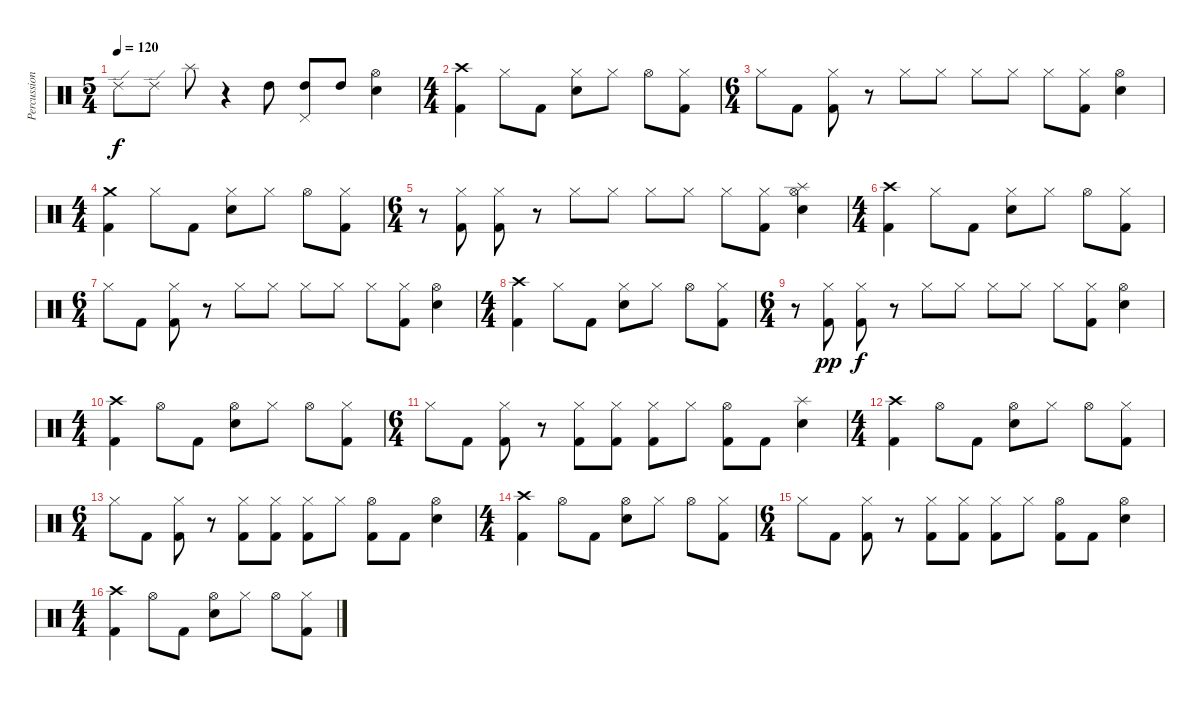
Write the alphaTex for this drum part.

\track ("Percussion" "Percussion") {instrument percussion}
\staff {score}
\articulation defaults
\ts (5 4)
\tempo 120
\clef neutral
\ks c "Ride (edge) 2".8{dy f} "Ride (edge) 2".8 "Splash (hit)".8
r.4 "High Tom (hit)".8 ("High Tom (hit)" "Pedal Hi-Hat (hit)").8 "High Tom (hit)".8 ("Electric Snare (hit)" "Hi-Hat (open)").4 |
\ts (4 4)
("Crash high (hit)" "Kick (hit) 2").4 "Hi-Hat (closed)".8 "Kick (hit) 2".8 ("Electric Snare (hit)" "Hi-Hat (closed)").8 "Hi-Hat (closed)".8 "Hi-Hat (open)".8 ("Hi-Hat (closed)" "Kick (hit) 2").8 |
\ts (6 4)
"Hi-Hat (closed)".8 "Kick (hit) 2".8 ("Hi-Hat (closed)" "Kick (hit) 2").8 r.8 "Hi-Hat (closed)".8 "Hi-Hat (closed)".8 "Hi-Hat (closed)".8 "Hi-Hat (closed)".8 "Hi-Hat (closed)".8 ("Hi-Hat (closed)" "Kick (hit) 2").8 ("Electric Snare (hit)" "Hi-Hat (open)").4 |
\ts (4 4)
("Crash medium (hit)" "Kick (hit) 2").4 "Hi-Hat (closed)".8 "Kick (hit) 2".8 ("Electric Snare (hit)" "Hi-Hat (closed)").8 "Hi-Hat (closed)".8 "Hi-Hat (open)".8 ("Hi-Hat (closed)" "Kick (hit) 2").8 |
\ts (6 4)
r.8 ("Hi-Hat (closed)" "Kick (hit) 2").8 ("Hi-Hat (closed)" "Kick (hit) 2").8 r.8 "Hi-Hat (closed)".8 "Hi-Hat (closed)".8 "Hi-Hat (closed)".8 "Hi-Hat (closed)".8 "Hi-Hat (closed)".8 ("Hi-Hat (closed)" "Kick (hit) 2").8 ("Splash (hit)" "Electric Snare (hit)" "Hi-Hat (open)").4 |
\ts (4 4)
("Crash high (hit)" "Kick (hit) 2").4 "Hi-Hat (closed)".8 "Kick (hit) 2".8 ("Electric Snare (hit)" "Hi-Hat (closed)").8 "Hi-Hat (closed)".8 "Hi-Hat (open)".8 ("Hi-Hat (closed)" "Kick (hit) 2").8 |
\ts (6 4)
"Hi-Hat (closed)".8 "Kick (hit) 2".8 ("Hi-Hat (closed)" "Kick (hit) 2").8 r.8 "Hi-Hat (closed)".8 "Hi-Hat (closed)".8 "Hi-Hat (closed)".8 "Hi-Hat (closed)".8 "Hi-Hat (closed)".8 ("Hi-Hat (closed)" "Kick (hit) 2").8 ("Electric Snare (hit)" "Hi-Hat (open)").4 |
\ts (4 4)
("Crash high (hit)" "Kick (hit) 2").4 "Hi-Hat (closed)".8 "Kick (hit) 2".8 ("Electric Snare (hit)" "Hi-Hat (closed)").8 "Hi-Hat (closed)".8 "Hi-Hat (open)".8 ("Hi-Hat (closed)" "Kick (hit) 2").8 |
\ts (6 4)
r.8 ("Hi-Hat (closed)" "Kick (hit) 2").8{dy pp} ("Hi-Hat (closed)" "Kick (hit) 2").8{dy f} r.8 "Hi-Hat (closed)".8 "Hi-Hat (closed)".8 "Hi-Hat (closed)".8 "Hi-Hat (closed)".8 "Hi-Hat (closed)".8 ("Hi-Hat (closed)" "Kick (hit) 2").8 ("Electric Snare (hit)" "Hi-Hat (open)").4 |
\ts (4 4)
("Crash high (hit)" "Kick (hit) 2").4 "Hi-Hat (open)".8 "Kick (hit) 2".8 ("Electric Snare (hit)" "Hi-Hat (open)").8 "Hi-Hat (closed)".8 "Hi-Hat (open)".8 ("Hi-Hat (closed)" "Kick (hit) 2").8 |
\ts (6 4)
"Hi-Hat (closed)".8 "Kick (hit) 2".8 ("Hi-Hat (closed)" "Kick (hit) 2").8 r.8 ("Hi-Hat (closed)" "Kick (hit) 2").8 ("Hi-Hat (closed)" "Kick (hit) 2").8 ("Hi-Hat (closed)" "Kick (hit) 2").8 "Hi-Hat (closed)".8 ("Hi-Hat (open)" "Kick (hit) 2").8 "Kick (hit) 2".8 ("Splash (hit)" "Electric Snare (hit)").4 |
\ts (4 4)
("Crash high (hit)" "Kick (hit) 2").4 "Hi-Hat (open)".8 "Kick (hit) 2".8 ("Electric Snare (hit)" "Hi-Hat (open)").8 "Hi-Hat (closed)".8 "Hi-Hat (open)".8 ("Hi-Hat (closed)" "Kick (hit) 2").8 |
\ts (6 4)
"Hi-Hat (closed)".8 "Kick (hit) 2".8 ("Hi-Hat (closed)" "Kick (hit) 2").8 r.8 ("Hi-Hat (closed)" "Kick (hit) 2").8 ("Hi-Hat (closed)" "Kick (hit) 2").8 ("Hi-Hat (closed)" "Kick (hit) 2").8 "Hi-Hat (closed)".8 ("Hi-Hat (open)" "Kick (hit) 2").8 "Kick (hit) 2".8 ("Electric Snare (hit)" "Hi-Hat (open)").4 |
\ts (4 4)
("Crash high (hit)" "Kick (hit) 2").4 "Hi-Hat (open)".8 "Kick (hit) 2".8 ("Electric Snare (hit)" "Hi-Hat (open)").8 "Hi-Hat (closed)".8 "Hi-Hat (open)".8 ("Hi-Hat (closed)" "Kick (hit) 2").8 |
\ts (6 4)
"Hi-Hat (closed)".8 "Kick (hit) 2".8 ("Hi-Hat (closed)" "Kick (hit) 2").8 r.8 ("Hi-Hat (closed)" "Kick (hit) 2").8 ("Hi-Hat (closed)" "Kick (hit) 2").8 ("Hi-Hat (closed)" "Kick (hit) 2").8 "Hi-Hat (closed)".8 ("Hi-Hat (open)" "Kick (hit) 2").8 "Kick (hit) 2".8 ("Electric Snare (hit)" "Hi-Hat (open)").4 |
\ts (4 4)
("Crash high (hit)" "Kick (hit) 2").4 "Hi-Hat (open)".8 "Kick (hit) 2".8 ("Electric Snare (hit)" "Hi-Hat (open)").8 "Hi-Hat (closed)".8 "Hi-Hat (open)".8 ("Hi-Hat (closed)" "Kick (hit) 2").8
